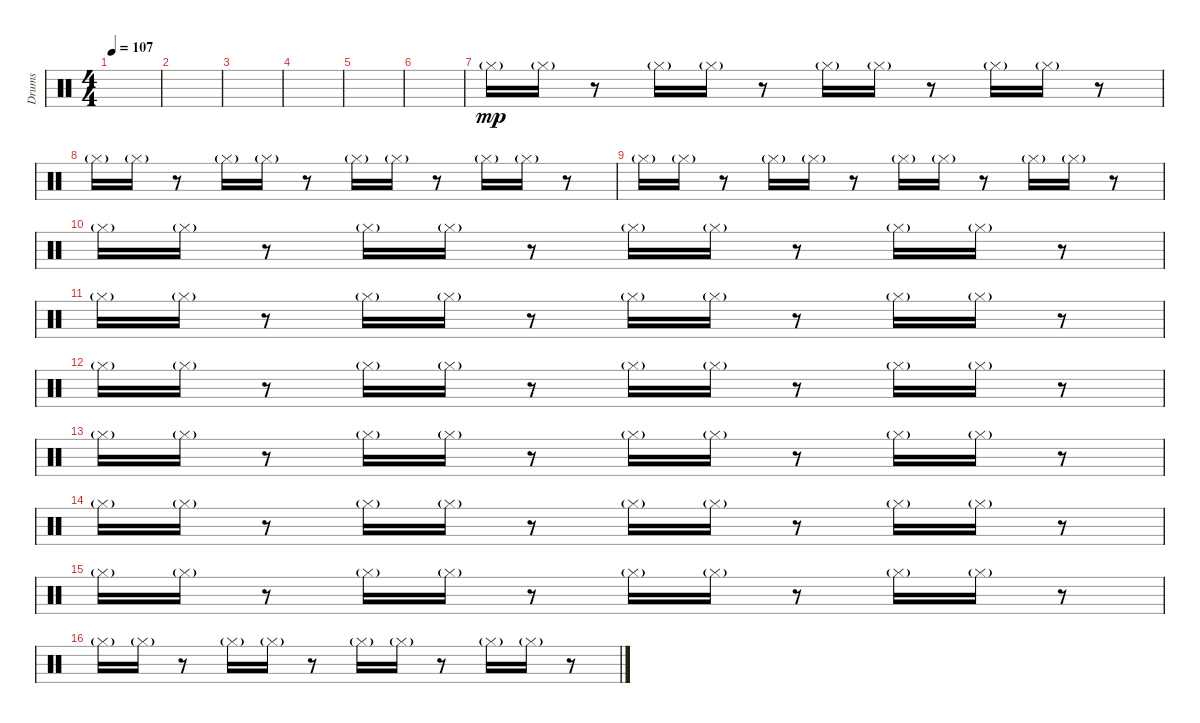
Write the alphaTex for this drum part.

\track ("Drums" "Drums") {instrument percussion}
\staff {score}
\articulation defaults
\ts (4 4)
\tempo 107
\clef neutral
\ks c
|
|
|
|
|
|
"Hi-Hat (closed)"{g}.16{dy mp volume 2} "Hi-Hat (closed)"{g}.16 r.8 "Hi-Hat (closed)"{g}.16 "Hi-Hat (closed)"{g}.16 r.8 "Hi-Hat (closed)"{g}.16 "Hi-Hat (closed)"{g}.16 r.8 "Hi-Hat (closed)"{g}.16 "Hi-Hat (closed)"{g}.16 r.8 |
"Hi-Hat (closed)"{g}.16 "Hi-Hat (closed)"{g}.16 r.8 "Hi-Hat (closed)"{g}.16 "Hi-Hat (closed)"{g}.16 r.8 "Hi-Hat (closed)"{g}.16 "Hi-Hat (closed)"{g}.16 r.8 "Hi-Hat (closed)"{g}.16 "Hi-Hat (closed)"{g}.16 r.8 |
"Hi-Hat (closed)"{g}.16{volume 16} "Hi-Hat (closed)"{g}.16 r.8 "Hi-Hat (closed)"{g}.16 "Hi-Hat (closed)"{g}.16 r.8 "Hi-Hat (closed)"{g}.16 "Hi-Hat (closed)"{g}.16 r.8 "Hi-Hat (closed)"{g}.16 "Hi-Hat (closed)"{g}.16 r.8 |
"Hi-Hat (closed)"{g}.16 "Hi-Hat (closed)"{g}.16 r.8 "Hi-Hat (closed)"{g}.16 "Hi-Hat (closed)"{g}.16 r.8 "Hi-Hat (closed)"{g}.16 "Hi-Hat (closed)"{g}.16 r.8 "Hi-Hat (closed)"{g}.16 "Hi-Hat (closed)"{g}.16 r.8 |
"Hi-Hat (closed)"{g}.16 "Hi-Hat (closed)"{g}.16 r.8 "Hi-Hat (closed)"{g}.16 "Hi-Hat (closed)"{g}.16 r.8 "Hi-Hat (closed)"{g}.16 "Hi-Hat (closed)"{g}.16 r.8 "Hi-Hat (closed)"{g}.16 "Hi-Hat (closed)"{g}.16 r.8 |
"Hi-Hat (closed)"{g}.16 "Hi-Hat (closed)"{g}.16 r.8 "Hi-Hat (closed)"{g}.16 "Hi-Hat (closed)"{g}.16 r.8 "Hi-Hat (closed)"{g}.16 "Hi-Hat (closed)"{g}.16 r.8 "Hi-Hat (closed)"{g}.16 "Hi-Hat (closed)"{g}.16 r.8 |
"Hi-Hat (closed)"{g}.16 "Hi-Hat (closed)"{g}.16 r.8 "Hi-Hat (closed)"{g}.16 "Hi-Hat (closed)"{g}.16 r.8 "Hi-Hat (closed)"{g}.16 "Hi-Hat (closed)"{g}.16 r.8 "Hi-Hat (closed)"{g}.16 "Hi-Hat (closed)"{g}.16 r.8 |
"Hi-Hat (closed)"{g}.16 "Hi-Hat (closed)"{g}.16 r.8 "Hi-Hat (closed)"{g}.16 "Hi-Hat (closed)"{g}.16 r.8 "Hi-Hat (closed)"{g}.16 "Hi-Hat (closed)"{g}.16 r.8 "Hi-Hat (closed)"{g}.16 "Hi-Hat (closed)"{g}.16 r.8 |
"Hi-Hat (closed)"{g}.16 "Hi-Hat (closed)"{g}.16 r.8 "Hi-Hat (closed)"{g}.16 "Hi-Hat (closed)"{g}.16 r.8 "Hi-Hat (closed)"{g}.16 "Hi-Hat (closed)"{g}.16 r.8 "Hi-Hat (closed)"{g}.16 "Hi-Hat (closed)"{g}.16 r.8 |
"Hi-Hat (closed)"{g}.16 "Hi-Hat (closed)"{g}.16 r.8 "Hi-Hat (closed)"{g}.16 "Hi-Hat (closed)"{g}.16 r.8 "Hi-Hat (closed)"{g}.16 "Hi-Hat (closed)"{g}.16 r.8 "Hi-Hat (closed)"{g}.16 "Hi-Hat (closed)"{g}.16 r.8
